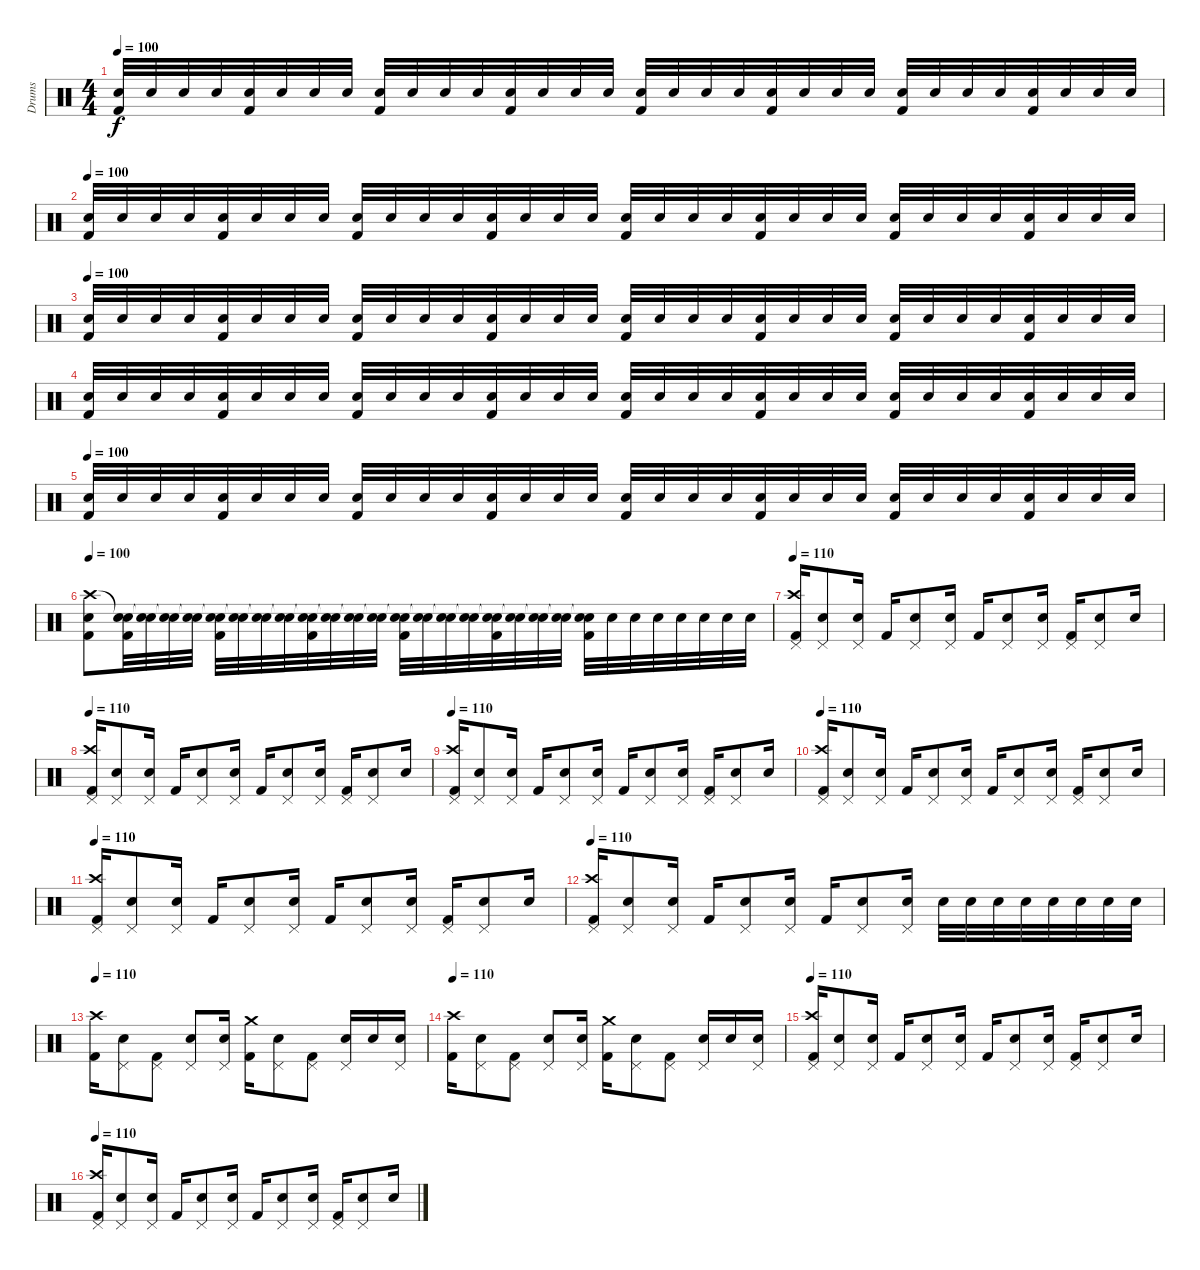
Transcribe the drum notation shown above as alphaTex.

\track ("Drums" "Drums") {instrument percussion}
\staff {score}
\articulation defaults
\ts (4 4)
\tempo 100
\clef neutral
\ks c
("Electric Snare (hit)" "Kick (hit) 2").32{dy f volume 11} "Electric Snare (hit)".32{volume 8} "Electric Snare (hit)".32 "Electric Snare (hit)".32 ("Electric Snare (hit)" "Kick (hit) 2").32{volume 11} "Electric Snare (hit)".32{volume 8} "Electric Snare (hit)".32 "Electric Snare (hit)".32 ("Electric Snare (hit)" "Kick (hit) 2").32{volume 12} "Electric Snare (hit)".32{volume 8} "Electric Snare (hit)".32 "Electric Snare (hit)".32 ("Electric Snare (hit)" "Kick (hit) 2").32{volume 12} "Electric Snare (hit)".32{volume 8} "Electric Snare (hit)".32 "Electric Snare (hit)".32 ("Electric Snare (hit)" "Kick (hit) 2").32{volume 12} "Electric Snare (hit)".32{volume 8} "Electric Snare (hit)".32 "Electric Snare (hit)".32 ("Electric Snare (hit)" "Kick (hit) 2").32{volume 12} "Electric Snare (hit)".32{volume 8} "Electric Snare (hit)".32 "Electric Snare (hit)".32 ("Electric Snare (hit)" "Kick (hit) 2").32{volume 12} "Electric Snare (hit)".32{volume 8} "Electric Snare (hit)".32 "Electric Snare (hit)".32 ("Electric Snare (hit)" "Kick (hit) 2").32{volume 12} "Electric Snare (hit)".32{volume 8} "Electric Snare (hit)".32 "Electric Snare (hit)".32 |
\tempo 100
("Electric Snare (hit)" "Kick (hit) 2").32{volume 11} "Electric Snare (hit)".32{volume 8} "Electric Snare (hit)".32 "Electric Snare (hit)".32 ("Electric Snare (hit)" "Kick (hit) 2").32{volume 11} "Electric Snare (hit)".32{volume 8} "Electric Snare (hit)".32 "Electric Snare (hit)".32 ("Electric Snare (hit)" "Kick (hit) 2").32{volume 12} "Electric Snare (hit)".32{volume 8} "Electric Snare (hit)".32 "Electric Snare (hit)".32 ("Electric Snare (hit)" "Kick (hit) 2").32{volume 12} "Electric Snare (hit)".32{volume 8} "Electric Snare (hit)".32 "Electric Snare (hit)".32 ("Electric Snare (hit)" "Kick (hit) 2").32{volume 12} "Electric Snare (hit)".32{volume 8} "Electric Snare (hit)".32 "Electric Snare (hit)".32 ("Electric Snare (hit)" "Kick (hit) 2").32{volume 12} "Electric Snare (hit)".32{volume 8} "Electric Snare (hit)".32 "Electric Snare (hit)".32 ("Electric Snare (hit)" "Kick (hit) 2").32{volume 12} "Electric Snare (hit)".32{volume 8} "Electric Snare (hit)".32 "Electric Snare (hit)".32 ("Electric Snare (hit)" "Kick (hit) 2").32{volume 12} "Electric Snare (hit)".32{volume 8} "Electric Snare (hit)".32 "Electric Snare (hit)".32 |
\tempo 100
("Electric Snare (hit)" "Kick (hit) 2").32{volume 11} "Electric Snare (hit)".32{volume 8} "Electric Snare (hit)".32 "Electric Snare (hit)".32 ("Electric Snare (hit)" "Kick (hit) 2").32{volume 11} "Electric Snare (hit)".32{volume 8} "Electric Snare (hit)".32 "Electric Snare (hit)".32 ("Electric Snare (hit)" "Kick (hit) 2").32{volume 12} "Electric Snare (hit)".32{volume 8} "Electric Snare (hit)".32 "Electric Snare (hit)".32 ("Electric Snare (hit)" "Kick (hit) 2").32{volume 12} "Electric Snare (hit)".32{volume 8} "Electric Snare (hit)".32 "Electric Snare (hit)".32 ("Electric Snare (hit)" "Kick (hit) 2").32{volume 12} "Electric Snare (hit)".32{volume 8} "Electric Snare (hit)".32 "Electric Snare (hit)".32 ("Electric Snare (hit)" "Kick (hit) 2").32{volume 12} "Electric Snare (hit)".32{volume 8} "Electric Snare (hit)".32 "Electric Snare (hit)".32 ("Electric Snare (hit)" "Kick (hit) 2").32{volume 12} "Electric Snare (hit)".32{volume 8} "Electric Snare (hit)".32 "Electric Snare (hit)".32 ("Electric Snare (hit)" "Kick (hit) 2").32{volume 12} "Electric Snare (hit)".32{volume 8} "Electric Snare (hit)".32 "Electric Snare (hit)".32 |
("Electric Snare (hit)" "Kick (hit) 2").32{volume 11} "Electric Snare (hit)".32{volume 8} "Electric Snare (hit)".32 "Electric Snare (hit)".32 ("Electric Snare (hit)" "Kick (hit) 2").32{volume 11} "Electric Snare (hit)".32{volume 8} "Electric Snare (hit)".32 "Electric Snare (hit)".32 ("Electric Snare (hit)" "Kick (hit) 2").32{volume 12} "Electric Snare (hit)".32{volume 8} "Electric Snare (hit)".32 "Electric Snare (hit)".32 ("Electric Snare (hit)" "Kick (hit) 2").32{volume 12} "Electric Snare (hit)".32{volume 8} "Electric Snare (hit)".32 "Electric Snare (hit)".32 ("Electric Snare (hit)" "Kick (hit) 2").32{volume 12} "Electric Snare (hit)".32{volume 8} "Electric Snare (hit)".32 "Electric Snare (hit)".32 ("Electric Snare (hit)" "Kick (hit) 2").32{volume 12} "Electric Snare (hit)".32{volume 8} "Electric Snare (hit)".32 "Electric Snare (hit)".32 ("Electric Snare (hit)" "Kick (hit) 2").32{volume 12} "Electric Snare (hit)".32{volume 8} "Electric Snare (hit)".32 "Electric Snare (hit)".32 ("Electric Snare (hit)" "Kick (hit) 2").32{volume 12} "Electric Snare (hit)".32{volume 8} "Electric Snare (hit)".32 "Electric Snare (hit)".32 |
\tempo 100
("Electric Snare (hit)" "Kick (hit) 2").32{volume 11} "Electric Snare (hit)".32{volume 8} "Electric Snare (hit)".32 "Electric Snare (hit)".32 ("Electric Snare (hit)" "Kick (hit) 2").32{volume 11} "Electric Snare (hit)".32{volume 8} "Electric Snare (hit)".32 "Electric Snare (hit)".32 ("Electric Snare (hit)" "Kick (hit) 2").32{volume 12} "Electric Snare (hit)".32{volume 8} "Electric Snare (hit)".32 "Electric Snare (hit)".32 ("Electric Snare (hit)" "Kick (hit) 2").32{volume 12} "Electric Snare (hit)".32{volume 8} "Electric Snare (hit)".32 "Electric Snare (hit)".32 ("Electric Snare (hit)" "Kick (hit) 2").32{volume 12} "Electric Snare (hit)".32{volume 8} "Electric Snare (hit)".32 "Electric Snare (hit)".32 ("Electric Snare (hit)" "Kick (hit) 2").32{volume 12} "Electric Snare (hit)".32{volume 8} "Electric Snare (hit)".32 "Electric Snare (hit)".32 ("Electric Snare (hit)" "Kick (hit) 2").32{volume 12} "Electric Snare (hit)".32{volume 8} "Electric Snare (hit)".32 "Electric Snare (hit)".32 ("Electric Snare (hit)" "Kick (hit) 2").32{volume 12} "Electric Snare (hit)".32{volume 8} "Electric Snare (hit)".32 "Electric Snare (hit)".32 |
\tempo 100
("Crash high (hit)" "Electric Snare (hit)" "Kick (hit) 2").8{volume 15} ("Snare (hit)"{t} "Electric Snare (hit)" "Kick (hit) 2").32{volume 10} ("Snare (hit)"{t} "Electric Snare (hit)").32 ("Snare (hit)"{t} "Electric Snare (hit)").32 ("Snare (hit)"{t} "Electric Snare (hit)").32 ("Snare (hit)"{t} "Electric Snare (hit)" "Kick (hit) 2").32{volume 11} ("Snare (hit)"{t} "Electric Snare (hit)").32 ("Snare (hit)"{t} "Electric Snare (hit)").32 ("Snare (hit)"{t} "Electric Snare (hit)").32 ("Snare (hit)"{t} "Electric Snare (hit)" "Kick (hit) 2").32{volume 12} ("Snare (hit)"{t} "Electric Snare (hit)").32 ("Snare (hit)"{t} "Electric Snare (hit)").32 ("Snare (hit)"{t} "Electric Snare (hit)").32 ("Snare (hit)"{t} "Electric Snare (hit)" "Kick (hit) 2").32{volume 13} ("Snare (hit)"{t} "Electric Snare (hit)").32 ("Snare (hit)"{t} "Electric Snare (hit)").32 ("Snare (hit)"{t} "Electric Snare (hit)").32 ("Snare (hit)"{t} "Electric Snare (hit)" "Kick (hit) 2").32{volume 14} ("Snare (hit)"{t} "Electric Snare (hit)").32 ("Snare (hit)"{t} "Electric Snare (hit)").32 ("Snare (hit)"{t} "Electric Snare (hit)").32 ("Snare (hit)"{t} "Electric Snare (hit)" "Kick (hit) 2").32{volume 15} "Electric Snare (hit)".32 "Electric Snare (hit)".32 "Electric Snare (hit)".32 "Electric Snare (hit)".32 "Electric Snare (hit)".32 "Electric Snare (hit)".32 "Electric Snare (hit)".32 |
\tempo 100
\tempo 110
("Crash high (hit)" "Kick (hit) 2" "Pedal Hi-Hat (hit)").16{volume 13} ("Electric Snare (hit)" "Pedal Hi-Hat (hit)").8 ("Electric Snare (hit)" "Pedal Hi-Hat (hit)").16 "Kick (hit) 2".16 ("Electric Snare (hit)" "Pedal Hi-Hat (hit)").8 ("Electric Snare (hit)" "Pedal Hi-Hat (hit)").16 "Kick (hit) 2".16 ("Electric Snare (hit)" "Pedal Hi-Hat (hit)").8 ("Electric Snare (hit)" "Pedal Hi-Hat (hit)").16 ("Kick (hit) 2" "Pedal Hi-Hat (hit)").16 ("Electric Snare (hit)" "Pedal Hi-Hat (hit)").8 "Electric Snare (hit)".16 |
\tempo 110
("Crash high (hit)" "Kick (hit) 2" "Pedal Hi-Hat (hit)").16{volume 13} ("Electric Snare (hit)" "Pedal Hi-Hat (hit)").8 ("Electric Snare (hit)" "Pedal Hi-Hat (hit)").16 "Kick (hit) 2".16 ("Electric Snare (hit)" "Pedal Hi-Hat (hit)").8 ("Electric Snare (hit)" "Pedal Hi-Hat (hit)").16 "Kick (hit) 2".16 ("Electric Snare (hit)" "Pedal Hi-Hat (hit)").8 ("Electric Snare (hit)" "Pedal Hi-Hat (hit)").16 ("Kick (hit) 2" "Pedal Hi-Hat (hit)").16 ("Electric Snare (hit)" "Pedal Hi-Hat (hit)").8 "Electric Snare (hit)".16 |
\tempo 100
\tempo 110
("Crash high (hit)" "Kick (hit) 2" "Pedal Hi-Hat (hit)").16{volume 13} ("Electric Snare (hit)" "Pedal Hi-Hat (hit)").8 ("Electric Snare (hit)" "Pedal Hi-Hat (hit)").16 "Kick (hit) 2".16 ("Electric Snare (hit)" "Pedal Hi-Hat (hit)").8 ("Electric Snare (hit)" "Pedal Hi-Hat (hit)").16 "Kick (hit) 2".16 ("Electric Snare (hit)" "Pedal Hi-Hat (hit)").8 ("Electric Snare (hit)" "Pedal Hi-Hat (hit)").16 ("Kick (hit) 2" "Pedal Hi-Hat (hit)").16 ("Electric Snare (hit)" "Pedal Hi-Hat (hit)").8 "Electric Snare (hit)".16 |
\tempo 100
\tempo 110
("Crash high (hit)" "Kick (hit) 2" "Pedal Hi-Hat (hit)").16{volume 13} ("Electric Snare (hit)" "Pedal Hi-Hat (hit)").8 ("Electric Snare (hit)" "Pedal Hi-Hat (hit)").16 "Kick (hit) 2".16 ("Electric Snare (hit)" "Pedal Hi-Hat (hit)").8 ("Electric Snare (hit)" "Pedal Hi-Hat (hit)").16 "Kick (hit) 2".16 ("Electric Snare (hit)" "Pedal Hi-Hat (hit)").8 ("Electric Snare (hit)" "Pedal Hi-Hat (hit)").16 ("Kick (hit) 2" "Pedal Hi-Hat (hit)").16 ("Electric Snare (hit)" "Pedal Hi-Hat (hit)").8 "Electric Snare (hit)".16 |
\tempo 100
\tempo 110
("Crash high (hit)" "Kick (hit) 2" "Pedal Hi-Hat (hit)").16{volume 13} ("Electric Snare (hit)" "Pedal Hi-Hat (hit)").8 ("Electric Snare (hit)" "Pedal Hi-Hat (hit)").16 "Kick (hit) 2".16 ("Electric Snare (hit)" "Pedal Hi-Hat (hit)").8 ("Electric Snare (hit)" "Pedal Hi-Hat (hit)").16 "Kick (hit) 2".16 ("Electric Snare (hit)" "Pedal Hi-Hat (hit)").8 ("Electric Snare (hit)" "Pedal Hi-Hat (hit)").16 ("Kick (hit) 2" "Pedal Hi-Hat (hit)").16 ("Electric Snare (hit)" "Pedal Hi-Hat (hit)").8 "Electric Snare (hit)".16 |
\tempo 110
("Crash high (hit)" "Kick (hit) 2" "Pedal Hi-Hat (hit)").16{volume 13} ("Electric Snare (hit)" "Pedal Hi-Hat (hit)").8 ("Electric Snare (hit)" "Pedal Hi-Hat (hit)").16 "Kick (hit) 2".16 ("Electric Snare (hit)" "Pedal Hi-Hat (hit)").8 ("Electric Snare (hit)" "Pedal Hi-Hat (hit)").16 "Kick (hit) 2".16 ("Electric Snare (hit)" "Pedal Hi-Hat (hit)").8 ("Electric Snare (hit)" "Pedal Hi-Hat (hit)").16 "Electric Snare (hit)".32 "Electric Snare (hit)".32 "Electric Snare (hit)".32 "Electric Snare (hit)".32 "Electric Snare (hit)".32 "Electric Snare (hit)".32 "Electric Snare (hit)".32 "Electric Snare (hit)".32 |
\tempo 100
\tempo 110
("Crash high (hit)" "Kick (hit) 2").16{volume 13} ("Electric Snare (hit)" "Pedal Hi-Hat (hit)").8 ("Kick (hit) 2" "Pedal Hi-Hat (hit)").8 ("Electric Snare (hit)" "Pedal Hi-Hat (hit)").8 ("Electric Snare (hit)" "Pedal Hi-Hat (hit)").16 ("Crash medium (hit)" "Kick (hit) 2").16 ("Electric Snare (hit)" "Pedal Hi-Hat (hit)").8 ("Kick (hit) 2" "Pedal Hi-Hat (hit)").8 ("Electric Snare (hit)" "Pedal Hi-Hat (hit)").16 "Electric Snare (hit)".16 ("Electric Snare (hit)" "Pedal Hi-Hat (hit)").16 |
\tempo 100
\tempo 110
("Crash high (hit)" "Kick (hit) 2").16{volume 13} ("Electric Snare (hit)" "Pedal Hi-Hat (hit)").8 ("Kick (hit) 2" "Pedal Hi-Hat (hit)").8 ("Electric Snare (hit)" "Pedal Hi-Hat (hit)").8 ("Electric Snare (hit)" "Pedal Hi-Hat (hit)").16 ("Crash medium (hit)" "Kick (hit) 2").16 ("Electric Snare (hit)" "Pedal Hi-Hat (hit)").8 ("Kick (hit) 2" "Pedal Hi-Hat (hit)").8 ("Electric Snare (hit)" "Pedal Hi-Hat (hit)").16 "Electric Snare (hit)".16 ("Electric Snare (hit)" "Pedal Hi-Hat (hit)").16 |
\tempo 110
("Crash high (hit)" "Kick (hit) 2" "Pedal Hi-Hat (hit)").16{volume 13} ("Electric Snare (hit)" "Pedal Hi-Hat (hit)").8 ("Electric Snare (hit)" "Pedal Hi-Hat (hit)").16 "Kick (hit) 2".16 ("Electric Snare (hit)" "Pedal Hi-Hat (hit)").8 ("Electric Snare (hit)" "Pedal Hi-Hat (hit)").16 "Kick (hit) 2".16 ("Electric Snare (hit)" "Pedal Hi-Hat (hit)").8 ("Electric Snare (hit)" "Pedal Hi-Hat (hit)").16 ("Kick (hit) 2" "Pedal Hi-Hat (hit)").16 ("Electric Snare (hit)" "Pedal Hi-Hat (hit)").8 "Electric Snare (hit)".16 |
\tempo 110
("Crash high (hit)" "Kick (hit) 2" "Pedal Hi-Hat (hit)").16{volume 13} ("Electric Snare (hit)" "Pedal Hi-Hat (hit)").8 ("Electric Snare (hit)" "Pedal Hi-Hat (hit)").16 "Kick (hit) 2".16 ("Electric Snare (hit)" "Pedal Hi-Hat (hit)").8 ("Electric Snare (hit)" "Pedal Hi-Hat (hit)").16 "Kick (hit) 2".16 ("Electric Snare (hit)" "Pedal Hi-Hat (hit)").8 ("Electric Snare (hit)" "Pedal Hi-Hat (hit)").16 ("Kick (hit) 2" "Pedal Hi-Hat (hit)").16 ("Electric Snare (hit)" "Pedal Hi-Hat (hit)").8 "Electric Snare (hit)".16
